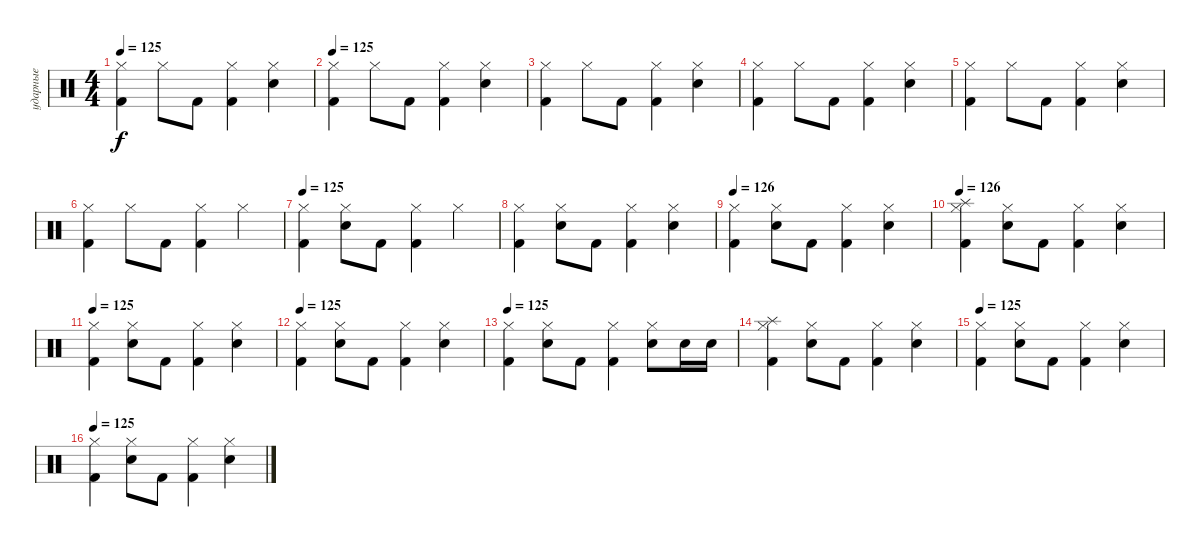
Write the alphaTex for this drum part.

\track ("ударные" "ударные") {instrument percussion}
\staff {score}
\articulation defaults
\ts (4 4)
\tempo 125
\clef neutral
\ks c
("Hi-Hat (closed)" "Kick (hit) 2").4{dy f} "Hi-Hat (closed)".8 "Kick (hit) 2".8 ("Hi-Hat (closed)" "Kick (hit) 2").4 ("Hi-Hat (closed)" "Electric Snare (hit)").4 |
\tempo 125
("Hi-Hat (closed)" "Kick (hit) 2").4 "Hi-Hat (closed)".8 "Kick (hit) 2".8 ("Hi-Hat (closed)" "Kick (hit) 2").4 ("Hi-Hat (closed)" "Electric Snare (hit)").4 |
("Hi-Hat (closed)" "Kick (hit) 2").4 "Hi-Hat (closed)".8 "Kick (hit) 2".8 ("Hi-Hat (closed)" "Kick (hit) 2").4 ("Hi-Hat (closed)" "Electric Snare (hit)").4 |
("Hi-Hat (closed)" "Kick (hit) 2").4 "Hi-Hat (closed)".8 "Kick (hit) 2".8 ("Hi-Hat (closed)" "Kick (hit) 2").4 ("Hi-Hat (closed)" "Electric Snare (hit)").4 |
("Hi-Hat (closed)" "Kick (hit) 2").4 "Hi-Hat (closed)".8 "Kick (hit) 2".8 ("Hi-Hat (closed)" "Kick (hit) 2").4 ("Hi-Hat (closed)" "Electric Snare (hit)").4 |
("Hi-Hat (closed)" "Kick (hit) 2").4 "Hi-Hat (closed)".8 "Kick (hit) 2".8 ("Hi-Hat (closed)" "Kick (hit) 2").4 "Hi-Hat (closed)".4 |
\tempo 125
("Kick (hit) 2" "Hi-Hat (closed)").4 ("Hi-Hat (closed)" "Electric Snare (hit)").8 "Kick (hit) 2".8 ("Kick (hit) 2" "Hi-Hat (closed)").4 "Hi-Hat (closed)".4 |
("Hi-Hat (closed)" "Kick (hit) 2").4 ("Electric Snare (hit)" "Hi-Hat (closed)").8 "Kick (hit) 2".8 ("Hi-Hat (closed)" "Kick (hit) 2").4 ("Hi-Hat (closed)" "Electric Snare (hit)").4 |
\tempo 126
("Kick (hit) 2" "Hi-Hat (closed)").4 ("Hi-Hat (closed)" "Electric Snare (hit)").8 "Kick (hit) 2".8 ("Hi-Hat (closed)" "Kick (hit) 2").4 ("Hi-Hat (closed)" "Electric Snare (hit)").4 |
\tempo 126
("Splash (hit)" "Hi-Hat (closed)" "Kick (hit) 2").4 ("Hi-Hat (closed)" "Electric Snare (hit)").8 "Kick (hit) 2".8 ("Kick (hit) 2" "Hi-Hat (closed)").4 ("Electric Snare (hit)" "Hi-Hat (closed)").4 |
\tempo 125
("Hi-Hat (closed)" "Kick (hit) 2").4 ("Electric Snare (hit)" "Hi-Hat (closed)").8 "Kick (hit) 2".8 ("Hi-Hat (closed)" "Kick (hit) 2").4 ("Hi-Hat (closed)" "Electric Snare (hit)").4 |
\tempo 125
("Kick (hit) 2" "Hi-Hat (closed)").4 ("Hi-Hat (closed)" "Electric Snare (hit)").8 "Kick (hit) 2".8 ("Hi-Hat (closed)" "Kick (hit) 2").4 ("Electric Snare (hit)" "Hi-Hat (closed)").4 |
\tempo 125
("Hi-Hat (closed)" "Kick (hit) 2").4 ("Hi-Hat (closed)" "Electric Snare (hit)").8 "Kick (hit) 2".8 ("Hi-Hat (closed)" "Kick (hit) 2").4 ("Hi-Hat (closed)" "Electric Snare (hit)").8 "Electric Snare (hit)".16 "Electric Snare (hit)".16 |
("Splash (hit)" "Kick (hit) 2" "Hi-Hat (closed)").4 ("Electric Snare (hit)" "Hi-Hat (closed)").8 "Kick (hit) 2".8 ("Hi-Hat (closed)" "Kick (hit) 2").4 ("Electric Snare (hit)" "Hi-Hat (closed)").4 |
\tempo 125
("Kick (hit) 2" "Hi-Hat (closed)").4 ("Hi-Hat (closed)" "Electric Snare (hit)").8 "Kick (hit) 2".8 ("Kick (hit) 2" "Hi-Hat (closed)").4 ("Electric Snare (hit)" "Hi-Hat (closed)").4 |
\tempo 125
("Kick (hit) 2" "Hi-Hat (closed)").4 ("Electric Snare (hit)" "Hi-Hat (closed)").8 "Kick (hit) 2".8 ("Kick (hit) 2" "Hi-Hat (closed)").4 ("Hi-Hat (closed)" "Electric Snare (hit)").4
